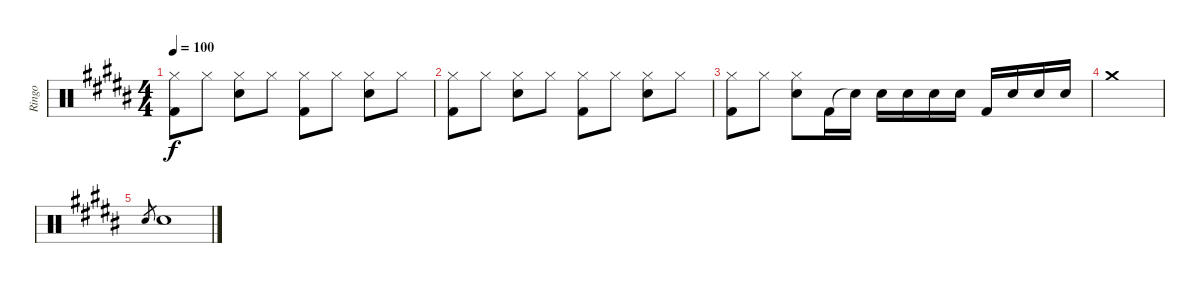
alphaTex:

\track ("Ringo" "Ringo") {instrument percussion}
\staff {score}
\articulation defaults
\ts (4 4)
\tempo 100
\clef neutral
\ks b
("Hi-Hat (closed)" "Kick (hit) 2").8{dy f} "Hi-Hat (closed)".8 ("Hi-Hat (closed)" "Electric Snare (hit)").8 "Hi-Hat (closed)".8 ("Hi-Hat (closed)" "Kick (hit) 2").8 "Hi-Hat (closed)".8 ("Hi-Hat (closed)" "Electric Snare (hit)").8 "Hi-Hat (closed)".8 |
("Hi-Hat (closed)" "Kick (hit) 2").8 "Hi-Hat (closed)".8 ("Hi-Hat (closed)" "Electric Snare (hit)").8 "Hi-Hat (closed)".8 ("Hi-Hat (closed)" "Kick (hit) 2").8 "Hi-Hat (closed)".8 ("Hi-Hat (closed)" "Electric Snare (hit)").8 "Hi-Hat (closed)".8 |
("Hi-Hat (closed)" "Kick (hit) 2").8 "Hi-Hat (closed)".8 ("Hi-Hat (closed)" "Electric Snare (hit)").8 "Kick (hit) 2".16 "Snare (hit)"{t}.16 "Electric Snare (hit)".16 "Electric Snare (hit)".16 "Electric Snare (hit)".16 "Electric Snare (hit)".16 "Kick (hit) 2".16 "Electric Snare (hit)".16 "Electric Snare (hit)".16 "Electric Snare (hit)".16 |
"Crash medium (hit)".1 |
"Snare (hit) 2".8{gr} "Electric Snare (hit)".1
